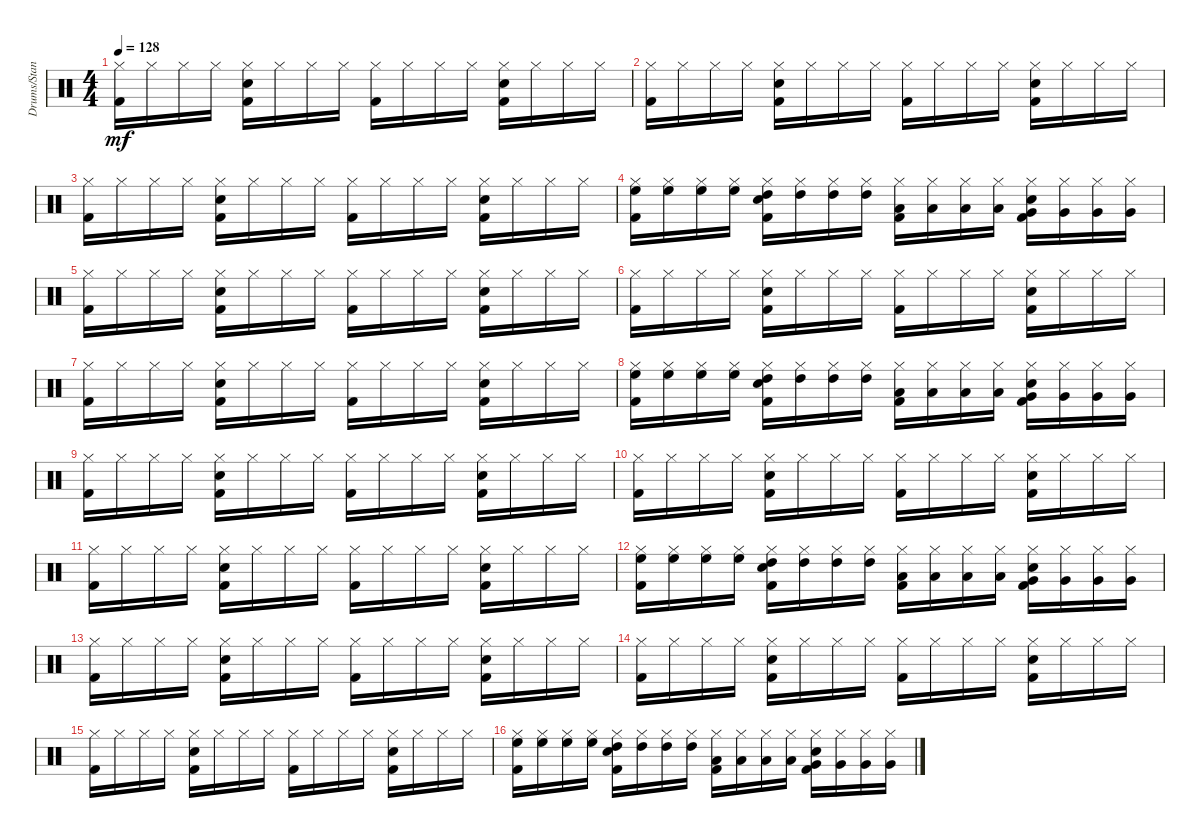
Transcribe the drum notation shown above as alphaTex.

\track ("Drums/Standard" "Drums/Stan") {instrument percussion}
\staff {score}
\articulation defaults
\ts (4 4)
\tempo 128
\clef neutral
\ks c
("Hi-Hat (closed)" "Kick (hit) 2").16{dy mf} "Hi-Hat (closed)".16 "Hi-Hat (closed)".16 "Hi-Hat (closed)".16 ("Hi-Hat (closed)" "Kick (hit) 2" "Snare (hit) 2").16 "Hi-Hat (closed)".16 "Hi-Hat (closed)".16 "Hi-Hat (closed)".16 ("Hi-Hat (closed)" "Kick (hit) 2").16 "Hi-Hat (closed)".16 "Hi-Hat (closed)".16 "Hi-Hat (closed)".16 ("Snare (hit) 2" "Hi-Hat (closed)" "Kick (hit) 2").16 "Hi-Hat (closed)".16 "Hi-Hat (closed)".16 "Hi-Hat (closed)".16 |
("Kick (hit) 2" "Hi-Hat (closed)").16 "Hi-Hat (closed)".16 "Hi-Hat (closed)".16 "Hi-Hat (closed)".16 ("Snare (hit) 2" "Kick (hit) 2" "Hi-Hat (closed)").16 "Hi-Hat (closed)".16 "Hi-Hat (closed)".16 "Hi-Hat (closed)".16 ("Hi-Hat (closed)" "Kick (hit) 2").16 "Hi-Hat (closed)".16 "Hi-Hat (closed)".16 "Hi-Hat (closed)".16 ("Hi-Hat (closed)" "Snare (hit) 2" "Kick (hit) 2").16 "Hi-Hat (closed)".16 "Hi-Hat (closed)".16 "Hi-Hat (closed)".16 |
("Kick (hit) 2" "Hi-Hat (closed)").16 "Hi-Hat (closed)".16 "Hi-Hat (closed)".16 "Hi-Hat (closed)".16 ("Snare (hit) 2" "Kick (hit) 2" "Hi-Hat (closed)").16 "Hi-Hat (closed)".16 "Hi-Hat (closed)".16 "Hi-Hat (closed)".16 ("Kick (hit) 2" "Hi-Hat (closed)").16 "Hi-Hat (closed)".16 "Hi-Hat (closed)".16 "Hi-Hat (closed)".16 ("Kick (hit) 2" "Hi-Hat (closed)" "Snare (hit) 2").16 "Hi-Hat (closed)".16 "Hi-Hat (closed)".16 "Hi-Hat (closed)".16 |
("High Floor Tom (hit)" "Hi-Hat (closed)" "Kick (hit) 2").16 ("High Floor Tom (hit)" "Hi-Hat (closed)").16 ("High Floor Tom (hit)" "Hi-Hat (closed)").16 ("High Floor Tom (hit)" "Hi-Hat (closed)").16 ("High Tom (hit)" "Hi-Hat (closed)" "Kick (hit) 2" "Snare (hit) 2").16 ("High Tom (hit)" "Hi-Hat (closed)").16 ("High Tom (hit)" "Hi-Hat (closed)").16 ("High Tom (hit)" "Hi-Hat (closed)").16 ("Low Tom (hit)" "Kick (hit) 2" "Hi-Hat (closed)").16 ("Low Tom (hit)" "Hi-Hat (closed)").16 ("Low Tom (hit)" "Hi-Hat (closed)").16 ("Low Tom (hit)" "Hi-Hat (closed)").16 ("Very Low Tom (hit)" "Kick (hit) 2" "Snare (hit) 2" "Hi-Hat (closed)").16 ("Very Low Tom (hit)" "Hi-Hat (closed)").16 ("Very Low Tom (hit)" "Hi-Hat (closed)").16 ("Very Low Tom (hit)" "Hi-Hat (closed)").16 |
("Hi-Hat (closed)" "Kick (hit) 2").16 "Hi-Hat (closed)".16 "Hi-Hat (closed)".16 "Hi-Hat (closed)".16 ("Hi-Hat (closed)" "Kick (hit) 2" "Snare (hit) 2").16 "Hi-Hat (closed)".16 "Hi-Hat (closed)".16 "Hi-Hat (closed)".16 ("Hi-Hat (closed)" "Kick (hit) 2").16 "Hi-Hat (closed)".16 "Hi-Hat (closed)".16 "Hi-Hat (closed)".16 ("Snare (hit) 2" "Hi-Hat (closed)" "Kick (hit) 2").16 "Hi-Hat (closed)".16 "Hi-Hat (closed)".16 "Hi-Hat (closed)".16 |
("Kick (hit) 2" "Hi-Hat (closed)").16 "Hi-Hat (closed)".16 "Hi-Hat (closed)".16 "Hi-Hat (closed)".16 ("Snare (hit) 2" "Kick (hit) 2" "Hi-Hat (closed)").16 "Hi-Hat (closed)".16 "Hi-Hat (closed)".16 "Hi-Hat (closed)".16 ("Hi-Hat (closed)" "Kick (hit) 2").16 "Hi-Hat (closed)".16 "Hi-Hat (closed)".16 "Hi-Hat (closed)".16 ("Hi-Hat (closed)" "Snare (hit) 2" "Kick (hit) 2").16 "Hi-Hat (closed)".16 "Hi-Hat (closed)".16 "Hi-Hat (closed)".16 |
("Kick (hit) 2" "Hi-Hat (closed)").16 "Hi-Hat (closed)".16 "Hi-Hat (closed)".16 "Hi-Hat (closed)".16 ("Snare (hit) 2" "Kick (hit) 2" "Hi-Hat (closed)").16 "Hi-Hat (closed)".16 "Hi-Hat (closed)".16 "Hi-Hat (closed)".16 ("Kick (hit) 2" "Hi-Hat (closed)").16 "Hi-Hat (closed)".16 "Hi-Hat (closed)".16 "Hi-Hat (closed)".16 ("Kick (hit) 2" "Hi-Hat (closed)" "Snare (hit) 2").16 "Hi-Hat (closed)".16 "Hi-Hat (closed)".16 "Hi-Hat (closed)".16 |
("High Floor Tom (hit)" "Hi-Hat (closed)" "Kick (hit) 2").16 ("High Floor Tom (hit)" "Hi-Hat (closed)").16 ("High Floor Tom (hit)" "Hi-Hat (closed)").16 ("High Floor Tom (hit)" "Hi-Hat (closed)").16 ("High Tom (hit)" "Hi-Hat (closed)" "Kick (hit) 2" "Snare (hit) 2").16 ("High Tom (hit)" "Hi-Hat (closed)").16 ("High Tom (hit)" "Hi-Hat (closed)").16 ("High Tom (hit)" "Hi-Hat (closed)").16 ("Low Tom (hit)" "Kick (hit) 2" "Hi-Hat (closed)").16 ("Low Tom (hit)" "Hi-Hat (closed)").16 ("Low Tom (hit)" "Hi-Hat (closed)").16 ("Low Tom (hit)" "Hi-Hat (closed)").16 ("Very Low Tom (hit)" "Kick (hit) 2" "Snare (hit) 2" "Hi-Hat (closed)").16 ("Very Low Tom (hit)" "Hi-Hat (closed)").16 ("Very Low Tom (hit)" "Hi-Hat (closed)").16 ("Very Low Tom (hit)" "Hi-Hat (closed)").16 |
("Kick (hit) 2" "Hi-Hat (closed)").16 "Hi-Hat (closed)".16 "Hi-Hat (closed)".16 "Hi-Hat (closed)".16 ("Snare (hit) 2" "Kick (hit) 2" "Hi-Hat (closed)").16 "Hi-Hat (closed)".16 "Hi-Hat (closed)".16 "Hi-Hat (closed)".16 ("Kick (hit) 2" "Hi-Hat (closed)").16 "Hi-Hat (closed)".16 "Hi-Hat (closed)".16 "Hi-Hat (closed)".16 ("Kick (hit) 2" "Hi-Hat (closed)" "Snare (hit) 2").16 "Hi-Hat (closed)".16 "Hi-Hat (closed)".16 "Hi-Hat (closed)".16 |
("Hi-Hat (closed)" "Kick (hit) 2").16 "Hi-Hat (closed)".16 "Hi-Hat (closed)".16 "Hi-Hat (closed)".16 ("Hi-Hat (closed)" "Kick (hit) 2" "Snare (hit) 2").16 "Hi-Hat (closed)".16 "Hi-Hat (closed)".16 "Hi-Hat (closed)".16 ("Kick (hit) 2" "Hi-Hat (closed)").16 "Hi-Hat (closed)".16 "Hi-Hat (closed)".16 "Hi-Hat (closed)".16 ("Kick (hit) 2" "Snare (hit) 2" "Hi-Hat (closed)").16 "Hi-Hat (closed)".16 "Hi-Hat (closed)".16 "Hi-Hat (closed)".16 |
("Hi-Hat (closed)" "Kick (hit) 2").16 "Hi-Hat (closed)".16 "Hi-Hat (closed)".16 "Hi-Hat (closed)".16 ("Hi-Hat (closed)" "Kick (hit) 2" "Snare (hit) 2").16 "Hi-Hat (closed)".16 "Hi-Hat (closed)".16 "Hi-Hat (closed)".16 ("Hi-Hat (closed)" "Kick (hit) 2").16 "Hi-Hat (closed)".16 "Hi-Hat (closed)".16 "Hi-Hat (closed)".16 ("Snare (hit) 2" "Hi-Hat (closed)" "Kick (hit) 2").16 "Hi-Hat (closed)".16 "Hi-Hat (closed)".16 "Hi-Hat (closed)".16 |
("Kick (hit) 2" "Hi-Hat (closed)" "High Floor Tom (hit)").16 ("Hi-Hat (closed)" "High Floor Tom (hit)").16 ("Hi-Hat (closed)" "High Floor Tom (hit)").16 ("Hi-Hat (closed)" "High Floor Tom (hit)").16 ("Snare (hit) 2" "Kick (hit) 2" "Hi-Hat (closed)" "High Tom (hit)").16 ("Hi-Hat (closed)" "High Tom (hit)").16 ("Hi-Hat (closed)" "High Tom (hit)").16 ("Hi-Hat (closed)" "High Tom (hit)").16 ("Hi-Hat (closed)" "Kick (hit) 2" "Low Tom (hit)").16 ("Hi-Hat (closed)" "Low Tom (hit)").16 ("Hi-Hat (closed)" "Low Tom (hit)").16 ("Hi-Hat (closed)" "Low Tom (hit)").16 ("Hi-Hat (closed)" "Snare (hit) 2" "Kick (hit) 2" "Very Low Tom (hit)").16 ("Hi-Hat (closed)" "Very Low Tom (hit)").16 ("Hi-Hat (closed)" "Very Low Tom (hit)").16 ("Hi-Hat (closed)" "Very Low Tom (hit)").16 |
("Kick (hit) 2" "Hi-Hat (closed)").16 "Hi-Hat (closed)".16 "Hi-Hat (closed)".16 "Hi-Hat (closed)".16 ("Snare (hit) 2" "Kick (hit) 2" "Hi-Hat (closed)").16 "Hi-Hat (closed)".16 "Hi-Hat (closed)".16 "Hi-Hat (closed)".16 ("Kick (hit) 2" "Hi-Hat (closed)").16 "Hi-Hat (closed)".16 "Hi-Hat (closed)".16 "Hi-Hat (closed)".16 ("Kick (hit) 2" "Hi-Hat (closed)" "Snare (hit) 2").16 "Hi-Hat (closed)".16 "Hi-Hat (closed)".16 "Hi-Hat (closed)".16 |
("Hi-Hat (closed)" "Kick (hit) 2").16 "Hi-Hat (closed)".16 "Hi-Hat (closed)".16 "Hi-Hat (closed)".16 ("Hi-Hat (closed)" "Kick (hit) 2" "Snare (hit) 2").16 "Hi-Hat (closed)".16 "Hi-Hat (closed)".16 "Hi-Hat (closed)".16 ("Kick (hit) 2" "Hi-Hat (closed)").16 "Hi-Hat (closed)".16 "Hi-Hat (closed)".16 "Hi-Hat (closed)".16 ("Kick (hit) 2" "Snare (hit) 2" "Hi-Hat (closed)").16 "Hi-Hat (closed)".16 "Hi-Hat (closed)".16 "Hi-Hat (closed)".16 |
("Hi-Hat (closed)" "Kick (hit) 2").16 "Hi-Hat (closed)".16 "Hi-Hat (closed)".16 "Hi-Hat (closed)".16 ("Hi-Hat (closed)" "Kick (hit) 2" "Snare (hit) 2").16 "Hi-Hat (closed)".16 "Hi-Hat (closed)".16 "Hi-Hat (closed)".16 ("Hi-Hat (closed)" "Kick (hit) 2").16 "Hi-Hat (closed)".16 "Hi-Hat (closed)".16 "Hi-Hat (closed)".16 ("Snare (hit) 2" "Hi-Hat (closed)" "Kick (hit) 2").16 "Hi-Hat (closed)".16 "Hi-Hat (closed)".16 "Hi-Hat (closed)".16 |
("Kick (hit) 2" "Hi-Hat (closed)" "High Floor Tom (hit)").16 ("Hi-Hat (closed)" "High Floor Tom (hit)").16 ("Hi-Hat (closed)" "High Floor Tom (hit)").16 ("Hi-Hat (closed)" "High Floor Tom (hit)").16 ("Snare (hit) 2" "Kick (hit) 2" "Hi-Hat (closed)" "High Tom (hit)").16 ("Hi-Hat (closed)" "High Tom (hit)").16 ("Hi-Hat (closed)" "High Tom (hit)").16 ("Hi-Hat (closed)" "High Tom (hit)").16 ("Hi-Hat (closed)" "Kick (hit) 2" "Low Tom (hit)").16 ("Hi-Hat (closed)" "Low Tom (hit)").16 ("Hi-Hat (closed)" "Low Tom (hit)").16 ("Hi-Hat (closed)" "Low Tom (hit)").16 ("Hi-Hat (closed)" "Snare (hit) 2" "Kick (hit) 2" "Very Low Tom (hit)").16 ("Hi-Hat (closed)" "Very Low Tom (hit)").16 ("Hi-Hat (closed)" "Very Low Tom (hit)").16 ("Hi-Hat (closed)" "Very Low Tom (hit)").16
